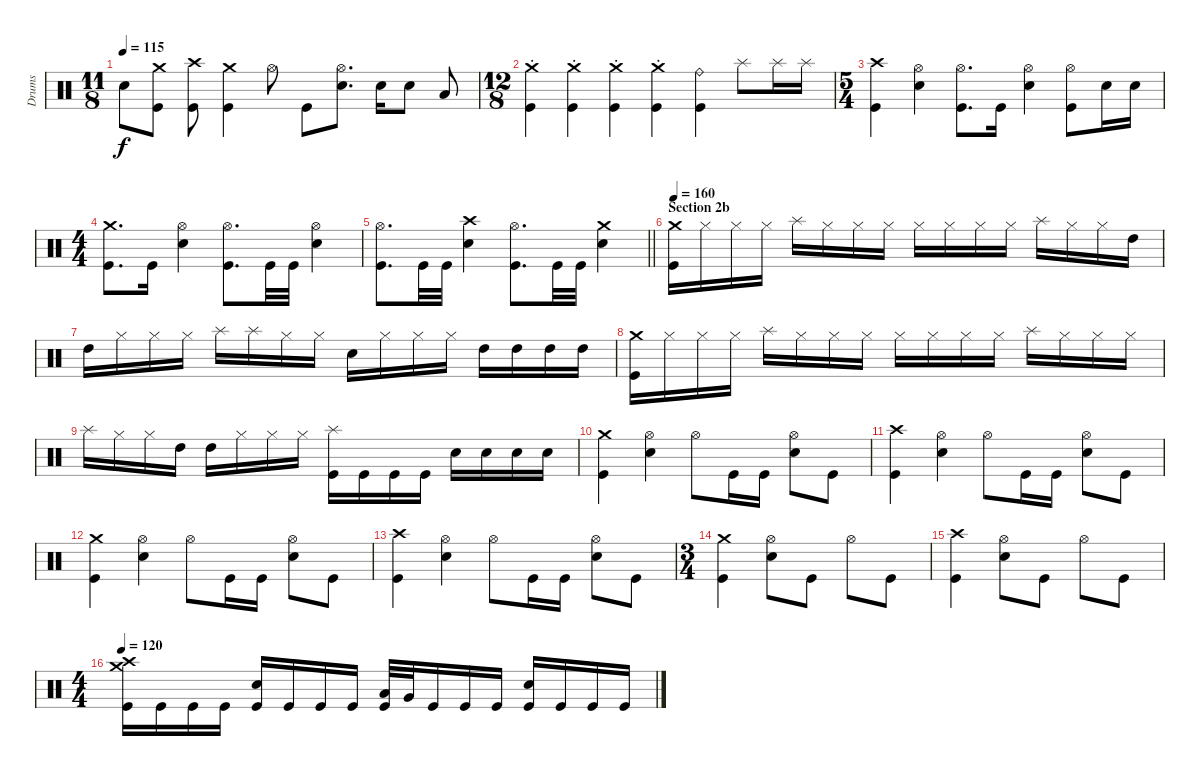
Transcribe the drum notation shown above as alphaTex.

\track ("Drums" "Drums") {instrument percussion}
\staff {score}
\articulation defaults
\ts (11 8)
\tempo 115
\clef neutral
\ks c "Snare (hit)"{t}.8{dy f}
("Crash medium (hit)" "Kick (hit)").8 ("Crash high (hit)" "Kick (hit)").8 ("Crash medium (hit)" "Kick (hit)").4 "Hi-Hat (open)".8 "Kick (hit)".8 ("Hi-Hat (open)" "Snare (hit) 2").8{d} "Snare (hit) 2".16 "Snare (hit) 2".8 "Low Tom (hit)".8 |
\ts (12 8)
("Crash medium (hit)"{st} "Kick (hit)").4 ("Crash medium (hit)"{st} "Kick (hit)").4 ("Crash medium (hit)"{st} "Kick (hit)").4 ("Crash medium (hit)"{st} "Kick (hit)").4 ("Ride (bell)" "Kick (hit)").4 "Splash (hit)".8 "Splash (hit)".16 "Splash (hit)".16 |
\ts (5 4)
("Crash high (hit)" "Kick (hit)").4 ("Hi-Hat (open)" "Snare (hit) 2").4 ("Hi-Hat (open)" "Kick (hit)").8{d} "Kick (hit)".16 ("Hi-Hat (open)" "Snare (hit) 2").4 ("Hi-Hat (open)" "Kick (hit)").8 "Snare (hit) 2".16 "Snare (hit) 2".16 |
\ts (4 4)
("Crash medium (hit)" "Kick (hit)").8{d} "Kick (hit)".16 ("Hi-Hat (open)" "Snare (hit) 2").4 ("Hi-Hat (open)" "Kick (hit)").8{d} "Kick (hit)".32 "Kick (hit)".32 ("Hi-Hat (open)" "Snare (hit) 2").4 |
\barLineRight lightlight
("Hi-Hat (open)" "Kick (hit)").8{d} "Kick (hit)".32 "Kick (hit)".32 ("Crash high (hit)" "Snare (hit) 2").4 ("Hi-Hat (open)" "Kick (hit)").8{d} "Kick (hit)".32 "Kick (hit)".32 ("Crash medium (hit)" "Snare (hit) 2").4 |
\section ("" "Section 2b")
\tempo 160
("Crash medium (hit)" "Kick (hit)").16 "Hi-Hat (closed)".16 "Hi-Hat (closed)".16 "Hi-Hat (closed)".16 "Splash (hit)".16 "Hi-Hat (closed)".16 "Hi-Hat (closed)".16 "Hi-Hat (closed)".16 "Hi-Hat (closed)".16 "Hi-Hat (closed)".16 "Hi-Hat (closed)".16 "Hi-Hat (closed)".16 "Splash (hit)".16 "Hi-Hat (closed)".16 "Hi-Hat (closed)".16 "High Tom (hit)".16 |
"High Tom (hit)".16 "Hi-Hat (closed)".16 "Hi-Hat (closed)".16 "Hi-Hat (closed)".16 "Splash (hit)".16 "Splash (hit)".16 "Hi-Hat (closed)".16 "Hi-Hat (closed)".16 "Snare (hit) 2".16 "Hi-Hat (closed)".16 "Hi-Hat (closed)".16 "Hi-Hat (closed)".16 "High Tom (hit)".16 "High Tom (hit)".16 "High Tom (hit)".16 "High Tom (hit)".16 |
("Crash medium (hit)" "Kick (hit)").16 "Hi-Hat (closed)".16 "Hi-Hat (closed)".16 "Hi-Hat (closed)".16 "Splash (hit)".16 "Hi-Hat (closed)".16 "Hi-Hat (closed)".16 "Hi-Hat (closed)".16 "Hi-Hat (closed)".16 "Hi-Hat (closed)".16 "Hi-Hat (closed)".16 "Hi-Hat (closed)".16 "Splash (hit)".16 "Hi-Hat (closed)".16 "Hi-Hat (closed)".16 "Hi-Hat (closed)".16 |
"Splash (hit)".16 "Hi-Hat (closed)".16 "Hi-Hat (closed)".16 "High Tom (hit)".16 "High Tom (hit)".16 "Hi-Hat (closed)".16 "Hi-Hat (closed)".16 "Hi-Hat (closed)".16 ("Splash (hit)" "Kick (hit)").16 "Kick (hit)".16 "Kick (hit)".16 "Kick (hit)".16 "Snare (hit) 2".16 "Snare (hit) 2".16 "Snare (hit) 2".16 "Snare (hit) 2".16 |
("Crash medium (hit)" "Kick (hit)").4 ("Hi-Hat (open)" "Snare (hit) 2").4 "Hi-Hat (open)".8 "Kick (hit)".16 "Kick (hit)".16 ("Hi-Hat (open)" "Snare (hit) 2").8 "Kick (hit)".8 |
("Crash high (hit)" "Kick (hit)").4 ("Hi-Hat (open)" "Snare (hit) 2").4 "Hi-Hat (open)".8 "Kick (hit)".16 "Kick (hit)".16 ("Hi-Hat (open)" "Snare (hit) 2").8 "Kick (hit)".8 |
("Crash medium (hit)" "Kick (hit)").4 ("Hi-Hat (open)" "Snare (hit) 2").4 "Hi-Hat (open)".8 "Kick (hit)".16 "Kick (hit)".16 ("Hi-Hat (open)" "Snare (hit) 2").8 "Kick (hit)".8 |
("Crash high (hit)" "Kick (hit)").4 ("Hi-Hat (open)" "Snare (hit) 2").4 "Hi-Hat (open)".8 "Kick (hit)".16 "Kick (hit)".16 ("Hi-Hat (open)" "Snare (hit) 2").8 "Kick (hit)".8 |
\ts (3 4)
("Crash medium (hit)" "Kick (hit)").4 ("Hi-Hat (open)" "Snare (hit) 2").8 "Kick (hit)".8 "Hi-Hat (open)".8 "Kick (hit)".8 |
("Crash high (hit)" "Kick (hit)").4 ("Hi-Hat (open)" "Snare (hit) 2").8 "Kick (hit)".8 "Hi-Hat (open)".8 "Kick (hit)".8 |
\ts (4 4)
\tempo 120
("Crash high (hit)" "Crash medium (hit)" "Kick (hit)").16 "Kick (hit)".16 "Kick (hit)".16 "Kick (hit)".16 ("Snare (hit) 2" "Kick (hit)").16 "Kick (hit)".16 "Kick (hit)".16 "Kick (hit)".16 ("Low Tom (hit)" "Kick (hit)").32 "Very Low Tom (hit)".32 "Kick (hit)".16 "Kick (hit)".16 "Kick (hit)".16 ("Snare (hit) 2" "Kick (hit)").16 "Kick (hit)".16 "Kick (hit)".16 "Kick (hit)".16
